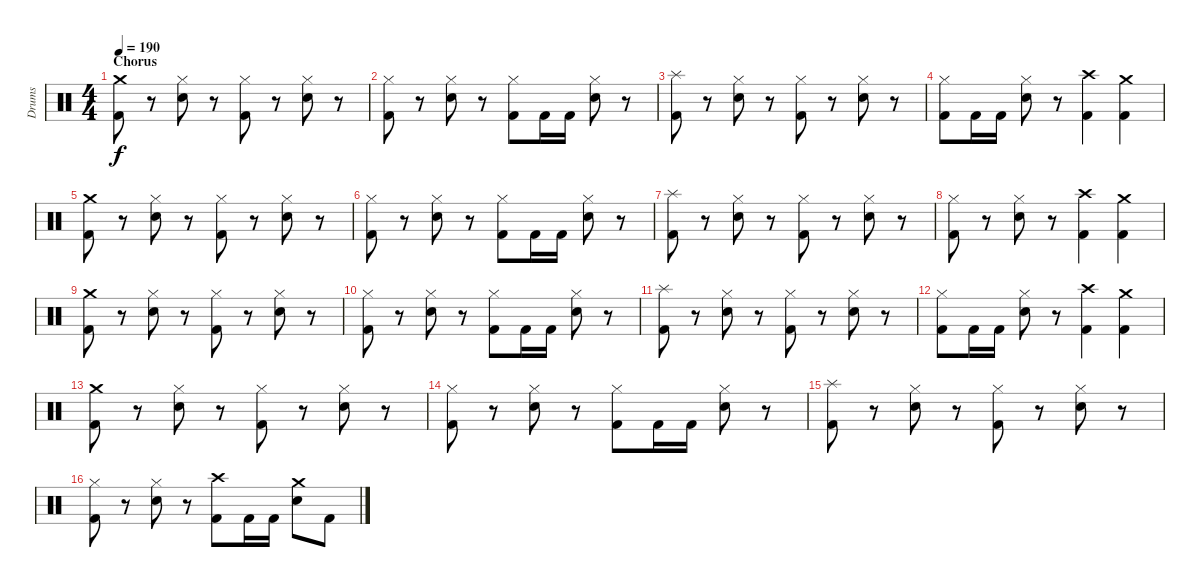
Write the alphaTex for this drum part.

\track ("Drums" "Drums") {instrument percussion}
\staff {score}
\articulation defaults
\ts (4 4)
\section ("" "Chorus")
\tempo 190
\clef neutral
\ks c
("Crash medium (hit)" "Kick (hit) 2").8{dy f} r.8 ("Hi-Hat (closed)" "Snare (hit) 2").8 r.8 ("Hi-Hat (closed)" "Kick (hit) 2").8 r.8 ("Hi-Hat (closed)" "Snare (hit) 2").8 r.8 |
("Hi-Hat (closed)" "Kick (hit) 2").8 r.8 ("Hi-Hat (closed)" "Snare (hit) 2").8 r.8 ("Hi-Hat (closed)" "Kick (hit) 2").8 "Kick (hit) 2".16 "Kick (hit) 2".16 ("Hi-Hat (closed)" "Snare (hit) 2").8 r.8 |
("Splash (hit)" "Kick (hit) 2").8 r.8 ("Hi-Hat (closed)" "Snare (hit) 2").8 r.8 ("Hi-Hat (closed)" "Kick (hit) 2").8 r.8 ("Hi-Hat (closed)" "Snare (hit) 2").8 r.8 |
("Hi-Hat (closed)" "Kick (hit) 2").8 "Kick (hit) 2".16 "Kick (hit) 2".16 ("Hi-Hat (closed)" "Snare (hit) 2").8 r.8 ("Crash high (hit)" "Kick (hit) 2").4 ("Crash medium (hit)" "Kick (hit) 2").4 |
("Crash medium (hit)" "Kick (hit) 2").8 r.8 ("Hi-Hat (closed)" "Snare (hit) 2").8 r.8 ("Hi-Hat (closed)" "Kick (hit) 2").8 r.8 ("Hi-Hat (closed)" "Snare (hit) 2").8 r.8 |
("Hi-Hat (closed)" "Kick (hit) 2").8 r.8 ("Hi-Hat (closed)" "Snare (hit) 2").8 r.8 ("Hi-Hat (closed)" "Kick (hit) 2").8 "Kick (hit) 2".16 "Kick (hit) 2".16 ("Hi-Hat (closed)" "Snare (hit) 2").8 r.8 |
("Splash (hit)" "Kick (hit) 2").8 r.8 ("Hi-Hat (closed)" "Snare (hit) 2").8 r.8 ("Hi-Hat (closed)" "Kick (hit) 2").8 r.8 ("Hi-Hat (closed)" "Snare (hit) 2").8 r.8 |
("Hi-Hat (closed)" "Kick (hit) 2").8 r.8 ("Hi-Hat (closed)" "Snare (hit) 2").8 r.8 ("Crash high (hit)" "Kick (hit) 2").4 ("Crash medium (hit)" "Kick (hit) 2").4 |
("Crash medium (hit)" "Kick (hit) 2").8 r.8 ("Hi-Hat (closed)" "Snare (hit) 2").8 r.8 ("Hi-Hat (closed)" "Kick (hit) 2").8 r.8 ("Hi-Hat (closed)" "Snare (hit) 2").8 r.8 |
("Hi-Hat (closed)" "Kick (hit) 2").8 r.8 ("Hi-Hat (closed)" "Snare (hit) 2").8 r.8 ("Hi-Hat (closed)" "Kick (hit) 2").8 "Kick (hit) 2".16 "Kick (hit) 2".16 ("Hi-Hat (closed)" "Snare (hit) 2").8 r.8 |
("Splash (hit)" "Kick (hit) 2").8 r.8 ("Hi-Hat (closed)" "Snare (hit) 2").8 r.8 ("Hi-Hat (closed)" "Kick (hit) 2").8 r.8 ("Hi-Hat (closed)" "Snare (hit) 2").8 r.8 |
("Hi-Hat (closed)" "Kick (hit) 2").8 "Kick (hit) 2".16 "Kick (hit) 2".16 ("Hi-Hat (closed)" "Snare (hit) 2").8 r.8 ("Crash high (hit)" "Kick (hit) 2").4 ("Crash medium (hit)" "Kick (hit) 2").4 |
("Crash medium (hit)" "Kick (hit) 2").8 r.8 ("Hi-Hat (closed)" "Snare (hit) 2").8 r.8 ("Hi-Hat (closed)" "Kick (hit) 2").8 r.8 ("Hi-Hat (closed)" "Snare (hit) 2").8 r.8 |
("Hi-Hat (closed)" "Kick (hit) 2").8 r.8 ("Hi-Hat (closed)" "Snare (hit) 2").8 r.8 ("Hi-Hat (closed)" "Kick (hit) 2").8 "Kick (hit) 2".16 "Kick (hit) 2".16 ("Hi-Hat (closed)" "Snare (hit) 2").8 r.8 |
("Splash (hit)" "Kick (hit) 2").8 r.8 ("Hi-Hat (closed)" "Snare (hit) 2").8 r.8 ("Hi-Hat (closed)" "Kick (hit) 2").8 r.8 ("Hi-Hat (closed)" "Snare (hit) 2").8 r.8 |
("Hi-Hat (closed)" "Kick (hit) 2").8 r.8 ("Hi-Hat (closed)" "Snare (hit) 2").8 r.8 ("Crash high (hit)" "Kick (hit) 2").8 "Kick (hit) 2".16 "Kick (hit) 2".16 ("Crash medium (hit)" "Snare (hit) 2").8 "Kick (hit) 2".8
